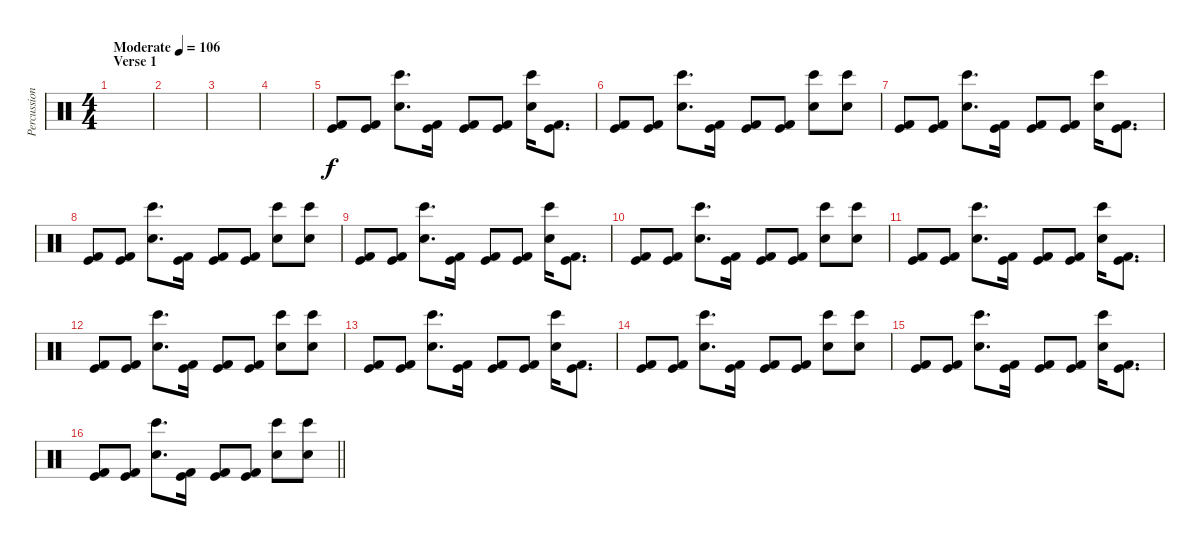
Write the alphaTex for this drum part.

\track ("Percussion" "Percussion") {instrument percussion}
\staff {score}
\articulation defaults
\ts (4 4)
\section ("" "Verse 1")
\tempo (106 "Moderate")
\clef neutral
\ks c
|
|
|
|
("Kick (hit)" "Kick (hit) 2").8 ("Kick (hit)" "Kick (hit) 2").8 ("Bongo High (hit)" "Hand Clap (hit)").8{d} ("Kick (hit)" "Kick (hit) 2").16 ("Kick (hit)" "Kick (hit) 2").8 ("Kick (hit)" "Kick (hit) 2").8 ("Bongo High (hit)" "Hand Clap (hit)").16 ("Kick (hit)" "Kick (hit) 2").8{d} |
("Kick (hit)" "Kick (hit) 2").8 ("Kick (hit)" "Kick (hit) 2").8 ("Bongo High (hit)" "Hand Clap (hit)").8{d} ("Kick (hit)" "Kick (hit) 2").16 ("Kick (hit)" "Kick (hit) 2").8 ("Kick (hit)" "Kick (hit) 2").8 ("Bongo High (hit)" "Hand Clap (hit)").8 ("Bongo High (hit)" "Hand Clap (hit)").8 |
("Kick (hit)" "Kick (hit) 2").8 ("Kick (hit)" "Kick (hit) 2").8 ("Bongo High (hit)" "Hand Clap (hit)").8{d} ("Kick (hit)" "Kick (hit) 2").16 ("Kick (hit)" "Kick (hit) 2").8 ("Kick (hit)" "Kick (hit) 2").8 ("Bongo High (hit)" "Hand Clap (hit)").16 ("Kick (hit)" "Kick (hit) 2").8{d} |
("Kick (hit)" "Kick (hit) 2").8 ("Kick (hit)" "Kick (hit) 2").8 ("Bongo High (hit)" "Hand Clap (hit)").8{d} ("Kick (hit)" "Kick (hit) 2").16 ("Kick (hit)" "Kick (hit) 2").8 ("Kick (hit)" "Kick (hit) 2").8 ("Bongo High (hit)" "Hand Clap (hit)").8 ("Bongo High (hit)" "Hand Clap (hit)").8 |
("Kick (hit)" "Kick (hit) 2").8 ("Kick (hit)" "Kick (hit) 2").8 ("Bongo High (hit)" "Hand Clap (hit)").8{d} ("Kick (hit)" "Kick (hit) 2").16 ("Kick (hit)" "Kick (hit) 2").8 ("Kick (hit)" "Kick (hit) 2").8 ("Bongo High (hit)" "Hand Clap (hit)").16 ("Kick (hit)" "Kick (hit) 2").8{d} |
("Kick (hit)" "Kick (hit) 2").8 ("Kick (hit)" "Kick (hit) 2").8 ("Bongo High (hit)" "Hand Clap (hit)").8{d} ("Kick (hit)" "Kick (hit) 2").16 ("Kick (hit)" "Kick (hit) 2").8 ("Kick (hit)" "Kick (hit) 2").8 ("Bongo High (hit)" "Hand Clap (hit)").8 ("Bongo High (hit)" "Hand Clap (hit)").8 |
("Kick (hit)" "Kick (hit) 2").8 ("Kick (hit)" "Kick (hit) 2").8 ("Bongo High (hit)" "Hand Clap (hit)").8{d} ("Kick (hit)" "Kick (hit) 2").16 ("Kick (hit)" "Kick (hit) 2").8 ("Kick (hit)" "Kick (hit) 2").8 ("Bongo High (hit)" "Hand Clap (hit)").16 ("Kick (hit)" "Kick (hit) 2").8{d} |
("Kick (hit)" "Kick (hit) 2").8 ("Kick (hit)" "Kick (hit) 2").8 ("Bongo High (hit)" "Hand Clap (hit)").8{d} ("Kick (hit)" "Kick (hit) 2").16 ("Kick (hit)" "Kick (hit) 2").8 ("Kick (hit)" "Kick (hit) 2").8 ("Bongo High (hit)" "Hand Clap (hit)").8 ("Bongo High (hit)" "Hand Clap (hit)").8 |
("Kick (hit)" "Kick (hit) 2").8 ("Kick (hit)" "Kick (hit) 2").8 ("Bongo High (hit)" "Hand Clap (hit)").8{d} ("Kick (hit)" "Kick (hit) 2").16 ("Kick (hit)" "Kick (hit) 2").8 ("Kick (hit)" "Kick (hit) 2").8 ("Bongo High (hit)" "Hand Clap (hit)").16 ("Kick (hit)" "Kick (hit) 2").8{d} |
("Kick (hit)" "Kick (hit) 2").8 ("Kick (hit)" "Kick (hit) 2").8 ("Bongo High (hit)" "Hand Clap (hit)").8{d} ("Kick (hit)" "Kick (hit) 2").16 ("Kick (hit)" "Kick (hit) 2").8 ("Kick (hit)" "Kick (hit) 2").8 ("Bongo High (hit)" "Hand Clap (hit)").8 ("Bongo High (hit)" "Hand Clap (hit)").8 |
("Kick (hit)" "Kick (hit) 2").8 ("Kick (hit)" "Kick (hit) 2").8 ("Bongo High (hit)" "Hand Clap (hit)").8{d} ("Kick (hit)" "Kick (hit) 2").16 ("Kick (hit)" "Kick (hit) 2").8 ("Kick (hit)" "Kick (hit) 2").8 ("Bongo High (hit)" "Hand Clap (hit)").16 ("Kick (hit)" "Kick (hit) 2").8{d} |
\barLineRight lightlight
("Kick (hit)" "Kick (hit) 2").8 ("Kick (hit)" "Kick (hit) 2").8 ("Bongo High (hit)" "Hand Clap (hit)").8{d} ("Kick (hit)" "Kick (hit) 2").16 ("Kick (hit)" "Kick (hit) 2").8 ("Kick (hit)" "Kick (hit) 2").8 ("Bongo High (hit)" "Hand Clap (hit)").8 ("Bongo High (hit)" "Hand Clap (hit)").8
